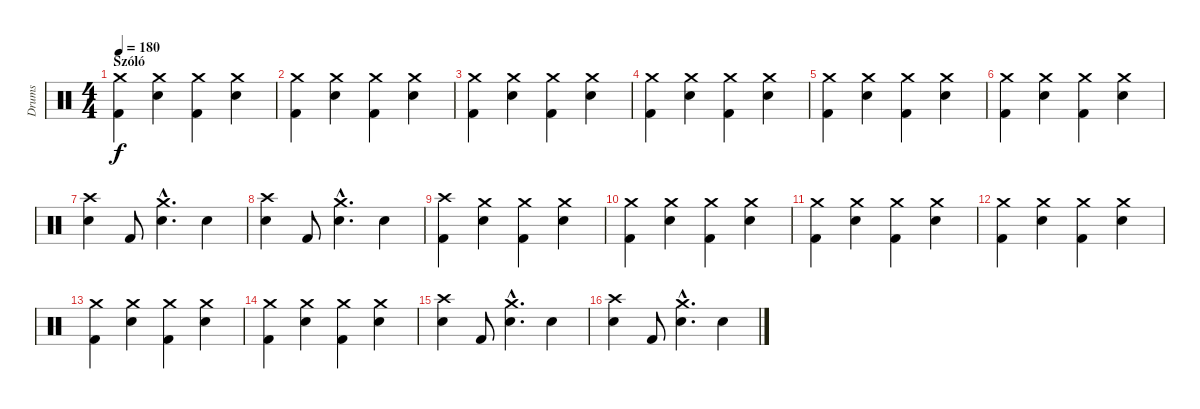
\track ("Drums" "Drums") {instrument percussion}
\staff {score}
\articulation defaults
\ts (4 4)
\section ("" "Szóló")
\tempo 180
\clef neutral
\ks c
("Crash medium (hit)" "Kick (hit) 2").4{dy f} ("Crash medium (hit)" "Snare (hit) 2").4 ("Crash medium (hit)" "Kick (hit) 2").4 ("Crash medium (hit)" "Snare (hit) 2").4 |
("Crash medium (hit)" "Kick (hit) 2").4 ("Crash medium (hit)" "Snare (hit) 2").4 ("Crash medium (hit)" "Kick (hit) 2").4 ("Crash medium (hit)" "Snare (hit) 2").4 |
("Crash medium (hit)" "Kick (hit) 2").4 ("Crash medium (hit)" "Snare (hit) 2").4 ("Crash medium (hit)" "Kick (hit) 2").4 ("Crash medium (hit)" "Snare (hit) 2").4 |
("Crash medium (hit)" "Kick (hit) 2").4 ("Crash medium (hit)" "Snare (hit) 2").4 ("Crash medium (hit)" "Kick (hit) 2").4 ("Crash medium (hit)" "Snare (hit) 2").4 |
("Crash medium (hit)" "Kick (hit) 2").4 ("Crash medium (hit)" "Snare (hit) 2").4 ("Crash medium (hit)" "Kick (hit) 2").4 ("Crash medium (hit)" "Snare (hit) 2").4 |
("Crash medium (hit)" "Kick (hit) 2").4 ("Crash medium (hit)" "Snare (hit) 2").4 ("Crash medium (hit)" "Kick (hit) 2").4 ("Crash medium (hit)" "Snare (hit) 2").4 |
("Crash high (hit)" "Snare (hit) 2").4 "Kick (hit) 2".8 ("Crash medium (hit)"{hac} "Snare (hit) 2"{hac}).4{d} "Snare (hit) 2".4 |
("Crash high (hit)" "Snare (hit) 2").4 "Kick (hit) 2".8 ("Crash medium (hit)"{hac} "Snare (hit) 2"{hac}).4{d} "Snare (hit) 2".4 |
("Crash high (hit)" "Kick (hit) 2").4 ("Crash medium (hit)" "Snare (hit) 2").4 ("Crash medium (hit)" "Kick (hit) 2").4 ("Crash medium (hit)" "Snare (hit) 2").4 |
("Crash medium (hit)" "Kick (hit) 2").4 ("Crash medium (hit)" "Snare (hit) 2").4 ("Crash medium (hit)" "Kick (hit) 2").4 ("Crash medium (hit)" "Snare (hit) 2").4 |
("Crash medium (hit)" "Kick (hit) 2").4 ("Crash medium (hit)" "Snare (hit) 2").4 ("Crash medium (hit)" "Kick (hit) 2").4 ("Crash medium (hit)" "Snare (hit) 2").4 |
("Crash medium (hit)" "Kick (hit) 2").4 ("Crash medium (hit)" "Snare (hit) 2").4 ("Crash medium (hit)" "Kick (hit) 2").4 ("Crash medium (hit)" "Snare (hit) 2").4 |
("Crash medium (hit)" "Kick (hit) 2").4 ("Crash medium (hit)" "Snare (hit) 2").4 ("Crash medium (hit)" "Kick (hit) 2").4 ("Crash medium (hit)" "Snare (hit) 2").4 |
("Crash medium (hit)" "Kick (hit) 2").4 ("Crash medium (hit)" "Snare (hit) 2").4 ("Crash medium (hit)" "Kick (hit) 2").4 ("Crash medium (hit)" "Snare (hit) 2").4 |
("Crash high (hit)" "Snare (hit) 2").4 "Kick (hit) 2".8 ("Crash medium (hit)"{hac} "Snare (hit) 2"{hac}).4{d} "Snare (hit) 2".4 |
("Crash high (hit)" "Snare (hit) 2").4 "Kick (hit) 2".8 ("Crash medium (hit)"{hac} "Snare (hit) 2"{hac}).4{d} "Snare (hit) 2".4
